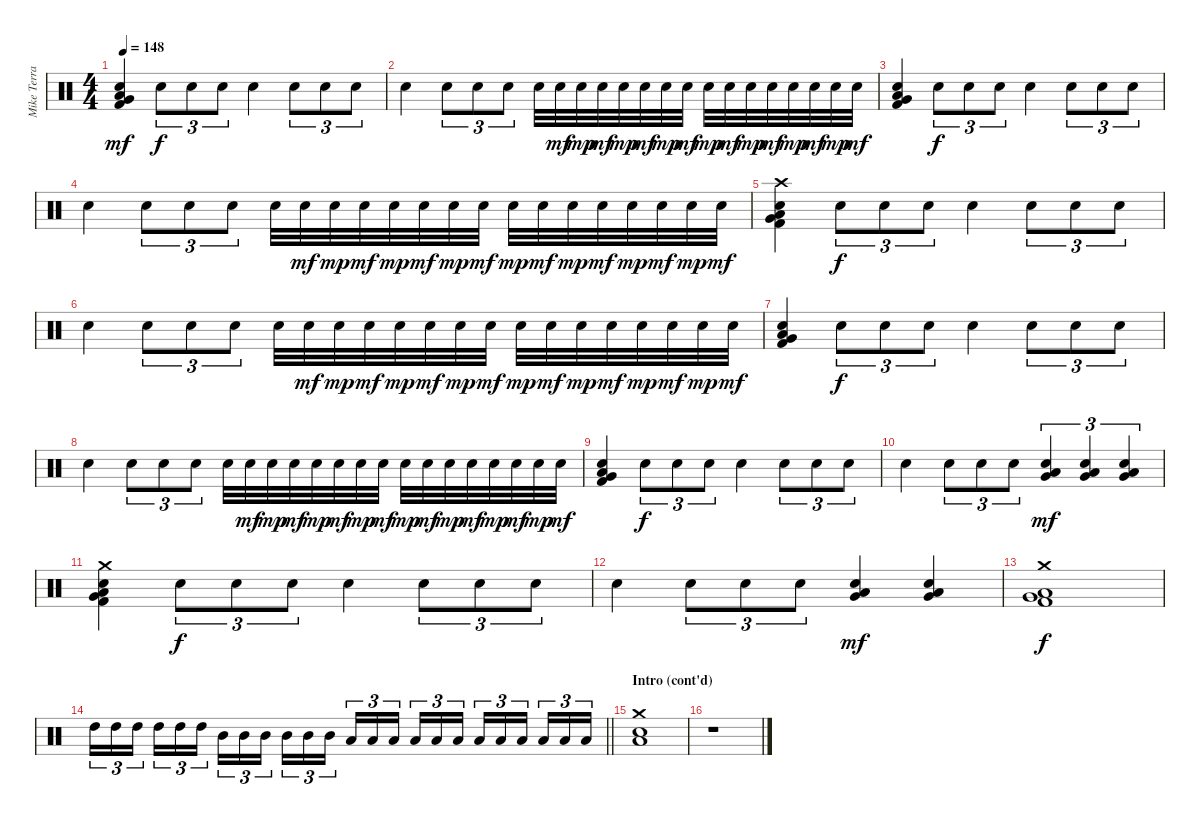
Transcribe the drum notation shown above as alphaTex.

\track ("Mike Terrana" "Mike Terra") {instrument percussion}
\staff {score}
\articulation defaults
\ts (4 4)
\tempo 148
\clef neutral
\ks c
("Very Low Tom (hit)" "Snare (hit) 2" "Low Tom (hit)" "Kick (hit) 2").4{dy mf} "Snare (hit) 2".8{tu (3 2) dy f} "Snare (hit) 2".8{tu (3 2)} "Snare (hit) 2".8{tu (3 2)} "Snare (hit) 2".4 "Snare (hit) 2".8{tu (3 2)} "Snare (hit) 2".8{tu (3 2)} "Snare (hit) 2".8{tu (3 2)} |
"Snare (hit) 2".4 "Snare (hit) 2".8{tu (3 2)} "Snare (hit) 2".8{tu (3 2)} "Snare (hit) 2".8{tu (3 2)} "Snare (hit) 2".32 "Snare (hit) 2".32{dy mf} "Snare (hit) 2".32{dy mp} "Snare (hit) 2".32{dy mf} "Snare (hit) 2".32{dy mp} "Snare (hit) 2".32{dy mf} "Snare (hit) 2".32{dy mp} "Snare (hit) 2".32{dy mf} "Snare (hit) 2".32{dy mp} "Snare (hit) 2".32{dy mf} "Snare (hit) 2".32{dy mp} "Snare (hit) 2".32{dy mf} "Snare (hit) 2".32{dy mp} "Snare (hit) 2".32{dy mf} "Snare (hit) 2".32{dy mp} "Snare (hit) 2".32{dy mf} |
("Very Low Tom (hit)" "Snare (hit) 2" "Low Tom (hit)" "Kick (hit) 2").4 "Snare (hit) 2".8{tu (3 2) dy f} "Snare (hit) 2".8{tu (3 2)} "Snare (hit) 2".8{tu (3 2)} "Snare (hit) 2".4 "Snare (hit) 2".8{tu (3 2)} "Snare (hit) 2".8{tu (3 2)} "Snare (hit) 2".8{tu (3 2)} |
"Snare (hit) 2".4 "Snare (hit) 2".8{tu (3 2)} "Snare (hit) 2".8{tu (3 2)} "Snare (hit) 2".8{tu (3 2)} "Snare (hit) 2".32 "Snare (hit) 2".32{dy mf} "Snare (hit) 2".32{dy mp} "Snare (hit) 2".32{dy mf} "Snare (hit) 2".32{dy mp} "Snare (hit) 2".32{dy mf} "Snare (hit) 2".32{dy mp} "Snare (hit) 2".32{dy mf} "Snare (hit) 2".32{dy mp} "Snare (hit) 2".32{dy mf} "Snare (hit) 2".32{dy mp} "Snare (hit) 2".32{dy mf} "Snare (hit) 2".32{dy mp} "Snare (hit) 2".32{dy mf} "Snare (hit) 2".32{dy mp} "Snare (hit) 2".32{dy mf} |
("Crash high (hit)" "Very Low Tom (hit)" "Snare (hit) 2" "Low Tom (hit)" "Kick (hit) 2").4 "Snare (hit) 2".8{tu (3 2) dy f} "Snare (hit) 2".8{tu (3 2)} "Snare (hit) 2".8{tu (3 2)} "Snare (hit) 2".4 "Snare (hit) 2".8{tu (3 2)} "Snare (hit) 2".8{tu (3 2)} "Snare (hit) 2".8{tu (3 2)} |
"Snare (hit) 2".4 "Snare (hit) 2".8{tu (3 2)} "Snare (hit) 2".8{tu (3 2)} "Snare (hit) 2".8{tu (3 2)} "Snare (hit) 2".32 "Snare (hit) 2".32{dy mf} "Snare (hit) 2".32{dy mp} "Snare (hit) 2".32{dy mf} "Snare (hit) 2".32{dy mp} "Snare (hit) 2".32{dy mf} "Snare (hit) 2".32{dy mp} "Snare (hit) 2".32{dy mf} "Snare (hit) 2".32{dy mp} "Snare (hit) 2".32{dy mf} "Snare (hit) 2".32{dy mp} "Snare (hit) 2".32{dy mf} "Snare (hit) 2".32{dy mp} "Snare (hit) 2".32{dy mf} "Snare (hit) 2".32{dy mp} "Snare (hit) 2".32{dy mf} |
("Very Low Tom (hit)" "Snare (hit) 2" "Low Tom (hit)" "Kick (hit) 2").4 "Snare (hit) 2".8{tu (3 2) dy f} "Snare (hit) 2".8{tu (3 2)} "Snare (hit) 2".8{tu (3 2)} "Snare (hit) 2".4 "Snare (hit) 2".8{tu (3 2)} "Snare (hit) 2".8{tu (3 2)} "Snare (hit) 2".8{tu (3 2)} |
"Snare (hit) 2".4 "Snare (hit) 2".8{tu (3 2)} "Snare (hit) 2".8{tu (3 2)} "Snare (hit) 2".8{tu (3 2)} "Snare (hit) 2".32 "Snare (hit) 2".32{dy mf} "Snare (hit) 2".32{dy mp} "Snare (hit) 2".32{dy mf} "Snare (hit) 2".32{dy mp} "Snare (hit) 2".32{dy mf} "Snare (hit) 2".32{dy mp} "Snare (hit) 2".32{dy mf} "Snare (hit) 2".32{dy mp} "Snare (hit) 2".32{dy mf} "Snare (hit) 2".32{dy mp} "Snare (hit) 2".32{dy mf} "Snare (hit) 2".32{dy mp} "Snare (hit) 2".32{dy mf} "Snare (hit) 2".32{dy mp} "Snare (hit) 2".32{dy mf} |
("Very Low Tom (hit)" "Snare (hit) 2" "Low Tom (hit)" "Kick (hit) 2").4 "Snare (hit) 2".8{tu (3 2) dy f} "Snare (hit) 2".8{tu (3 2)} "Snare (hit) 2".8{tu (3 2)} "Snare (hit) 2".4 "Snare (hit) 2".8{tu (3 2)} "Snare (hit) 2".8{tu (3 2)} "Snare (hit) 2".8{tu (3 2)} |
"Snare (hit) 2".4 "Snare (hit) 2".8{tu (3 2)} "Snare (hit) 2".8{tu (3 2)} "Snare (hit) 2".8{tu (3 2)} ("Snare (hit) 2" "Low Tom (hit)" "Very Low Tom (hit)").4{tu (3 2) dy mf} ("Snare (hit) 2" "Low Tom (hit)" "Very Low Tom (hit)").4{tu (3 2)} ("Snare (hit) 2" "Low Tom (hit)" "Very Low Tom (hit)").4{tu (3 2)} |
("Crash medium (hit)" "Very Low Tom (hit)" "Snare (hit) 2" "Low Tom (hit)" "Kick (hit) 2").4 "Snare (hit) 2".8{tu (3 2) dy f} "Snare (hit) 2".8{tu (3 2)} "Snare (hit) 2".8{tu (3 2)} "Snare (hit) 2".4 "Snare (hit) 2".8{tu (3 2)} "Snare (hit) 2".8{tu (3 2)} "Snare (hit) 2".8{tu (3 2)} |
"Snare (hit) 2".4 "Snare (hit) 2".8{tu (3 2)} "Snare (hit) 2".8{tu (3 2)} "Snare (hit) 2".8{tu (3 2)} ("Snare (hit) 2" "Low Tom (hit)" "Very Low Tom (hit)").4{dy mf} ("Snare (hit) 2" "Low Tom (hit)" "Very Low Tom (hit)").4 |
("Crash medium (hit)" "Low Tom (hit)" "Very Low Tom (hit)" "Kick (hit) 2").1{dy f volume 16} |
\barLineRight lightlight "High Tom (hit)".16{tu (3 2)} "High Tom (hit)".16{tu (3 2)} "High Tom (hit)".16{tu (3 2) beam splitsecondary} "High Tom (hit)".16{tu (3 2)} "High Tom (hit)".16{tu (3 2)} "High Tom (hit)".16{tu (3 2)} "Mid Tom (hit)".16{tu (3 2)} "Mid Tom (hit)".16{tu (3 2)} "Mid Tom (hit)".16{tu (3 2) beam splitsecondary} "Mid Tom (hit)".16{tu (3 2)} "Mid Tom (hit)".16{tu (3 2)} "Mid Tom (hit)".16{tu (3 2)} "Low Tom (hit)".16{tu (3 2)} "Low Tom (hit)".16{tu (3 2)} "Low Tom (hit)".16{tu (3 2) beam splitsecondary} "Low Tom (hit)".16{tu (3 2)} "Low Tom (hit)".16{tu (3 2)} "Low Tom (hit)".16{tu (3 2)} "Low Floor Tom (hit)".16{tu (3 2)} "Low Floor Tom (hit)".16{tu (3 2)} "Low Floor Tom (hit)".16{tu (3 2) beam splitsecondary} "Low Floor Tom (hit)".16{tu (3 2)} "Low Floor Tom (hit)".16{tu (3 2)} "Low Floor Tom (hit)".16{tu (3 2)}
|
\section ("" "Intro (cont'd)")
("Crash medium (hit)" "Snare (hit) 2" "Low Floor Tom (hit)").1 |
r.1
